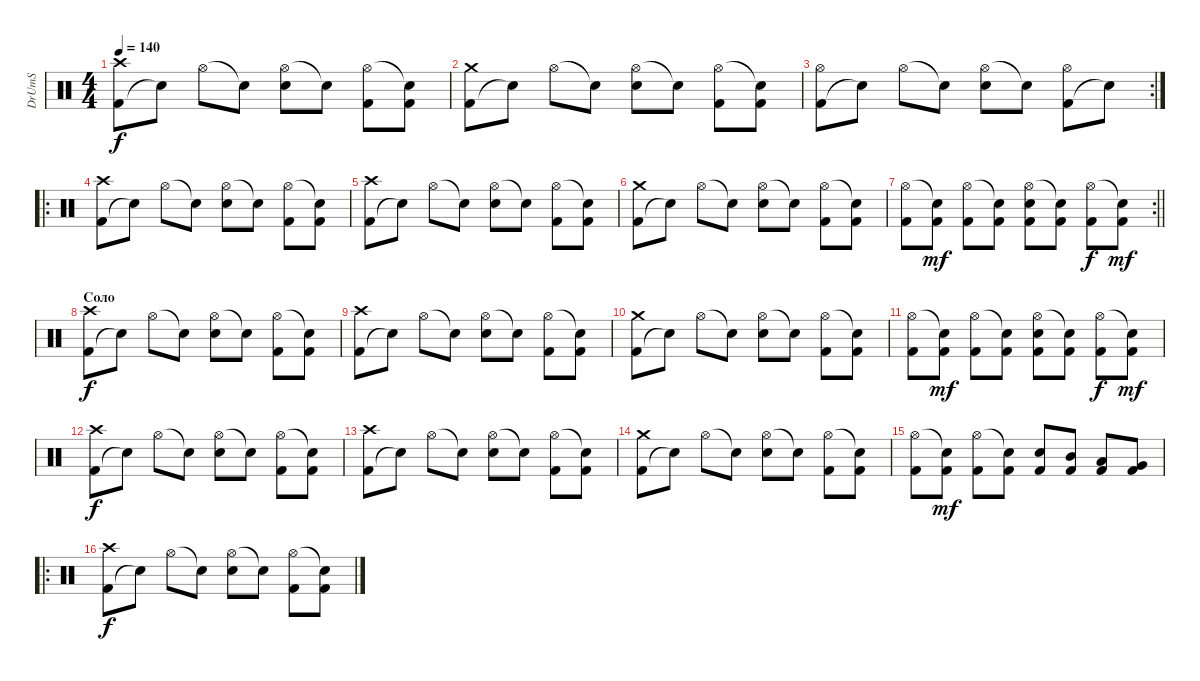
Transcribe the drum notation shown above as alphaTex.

\track ("DrUmS" "DrUmS") {instrument percussion}
\staff {score}
\articulation defaults
\ts (4 4)
\tempo 140
\clef neutral
\ks c
("Kick (hit) 2" "Crash high (hit)").8{dy f} "Snare (hit)"{t}.8 "Hi-Hat (open)".8 "Snare (hit)"{t}.8 ("Hi-Hat (open)" "Snare (hit) 2").8 "Snare (hit)"{t}.8 ("Kick (hit) 2" "Hi-Hat (open)").8 ("Kick (hit) 2" "Snare (hit)"{t}).8 |
("Kick (hit) 2" "Crash medium (hit)").8 "Snare (hit)"{t}.8 "Hi-Hat (open)".8 "Snare (hit)"{t}.8 ("Hi-Hat (open)" "Snare (hit) 2").8 "Snare (hit)"{t}.8 ("Kick (hit) 2" "Hi-Hat (open)").8 ("Kick (hit) 2" "Snare (hit)"{t}).8 |
\rc 2
("Kick (hit) 2" "Hi-Hat (open)").8 "Snare (hit)"{t}.8 "Hi-Hat (open)".8 "Snare (hit)"{t}.8 ("Hi-Hat (open)" "Snare (hit) 2").8 "Snare (hit)"{t}.8 ("Kick (hit) 2" "Hi-Hat (open)").8 "Snare (hit)"{t}.8 |
\ro
("Kick (hit) 2" "Crash high (hit)").8 "Snare (hit)"{t}.8 "Hi-Hat (open)".8 "Snare (hit)"{t}.8 ("Hi-Hat (open)" "Snare (hit) 2").8 "Snare (hit)"{t}.8 ("Kick (hit) 2" "Hi-Hat (open)").8 ("Kick (hit) 2" "Snare (hit)"{t}).8 |
("Kick (hit) 2" "Crash high (hit)").8 "Snare (hit)"{t}.8 "Hi-Hat (open)".8 "Snare (hit)"{t}.8 ("Hi-Hat (open)" "Snare (hit) 2").8 "Snare (hit)"{t}.8 ("Kick (hit) 2" "Hi-Hat (open)").8 ("Kick (hit) 2" "Snare (hit)"{t}).8 |
("Kick (hit) 2" "Crash medium (hit)").8 "Snare (hit)"{t}.8 "Hi-Hat (open)".8 "Snare (hit)"{t}.8 ("Hi-Hat (open)" "Snare (hit) 2").8 "Snare (hit)"{t}.8 ("Kick (hit) 2" "Hi-Hat (open)").8 ("Kick (hit) 2" "Snare (hit)"{t}).8 |
\rc 2
\barLineRight lightlight
("Kick (hit) 2" "Hi-Hat (open)").8 ("Kick (hit) 2" "Snare (hit)"{t}).8{dy mf} ("Kick (hit) 2" "Hi-Hat (open)").8 ("Kick (hit) 2" "Snare (hit)"{t}).8 ("Kick (hit) 2" "Hi-Hat (open)" "Snare (hit) 2").8 ("Kick (hit) 2" "Snare (hit)"{t}).8 ("Kick (hit) 2" "Hi-Hat (open)").8{dy f} ("Kick (hit) 2" "Snare (hit)"{t}).8{dy mf} |
\section ("" "Соло")
("Kick (hit) 2" "Crash high (hit)").8{dy f} "Snare (hit)"{t}.8 "Hi-Hat (open)".8 "Snare (hit)"{t}.8 ("Hi-Hat (open)" "Snare (hit) 2").8 "Snare (hit)"{t}.8 ("Kick (hit) 2" "Hi-Hat (open)").8 ("Kick (hit) 2" "Snare (hit)"{t}).8 |
("Kick (hit) 2" "Crash high (hit)").8 "Snare (hit)"{t}.8 "Hi-Hat (open)".8 "Snare (hit)"{t}.8 ("Hi-Hat (open)" "Snare (hit) 2").8 "Snare (hit)"{t}.8 ("Kick (hit) 2" "Hi-Hat (open)").8 ("Kick (hit) 2" "Snare (hit)"{t}).8 |
("Kick (hit) 2" "Crash medium (hit)").8 "Snare (hit)"{t}.8 "Hi-Hat (open)".8 "Snare (hit)"{t}.8 ("Hi-Hat (open)" "Snare (hit) 2").8 "Snare (hit)"{t}.8 ("Kick (hit) 2" "Hi-Hat (open)").8 ("Kick (hit) 2" "Snare (hit)"{t}).8 |
("Kick (hit) 2" "Hi-Hat (open)").8 ("Kick (hit) 2" "Snare (hit)"{t}).8{dy mf} ("Kick (hit) 2" "Hi-Hat (open)").8 ("Kick (hit) 2" "Snare (hit)"{t}).8 ("Kick (hit) 2" "Hi-Hat (open)" "Snare (hit) 2").8 ("Kick (hit) 2" "Snare (hit)"{t}).8 ("Kick (hit) 2" "Hi-Hat (open)").8{dy f} ("Kick (hit) 2" "Snare (hit)"{t}).8{dy mf} |
("Kick (hit) 2" "Crash high (hit)").8{dy f} "Snare (hit)"{t}.8 "Hi-Hat (open)".8 "Snare (hit)"{t}.8 ("Hi-Hat (open)" "Snare (hit) 2").8 "Snare (hit)"{t}.8 ("Kick (hit) 2" "Hi-Hat (open)").8 ("Kick (hit) 2" "Snare (hit)"{t}).8 |
("Kick (hit) 2" "Crash high (hit)").8 "Snare (hit)"{t}.8 "Hi-Hat (open)".8 "Snare (hit)"{t}.8 ("Hi-Hat (open)" "Snare (hit) 2").8 "Snare (hit)"{t}.8 ("Kick (hit) 2" "Hi-Hat (open)").8 ("Kick (hit) 2" "Snare (hit)"{t}).8 |
("Kick (hit) 2" "Crash medium (hit)").8 "Snare (hit)"{t}.8 "Hi-Hat (open)".8 "Snare (hit)"{t}.8 ("Hi-Hat (open)" "Snare (hit) 2").8 "Snare (hit)"{t}.8 ("Kick (hit) 2" "Hi-Hat (open)").8 ("Kick (hit) 2" "Snare (hit)"{t}).8 |
("Kick (hit) 2" "Hi-Hat (open)").8 ("Kick (hit) 2" "Snare (hit)"{t}).8{dy mf} ("Kick (hit) 2" "Hi-Hat (open)").8 ("Kick (hit) 2" "Snare (hit)"{t}).8 ("Kick (hit) 2" "Snare (hit) 2").8 ("Kick (hit) 2" "Mid Tom (hit)").8 ("Kick (hit) 2" "Low Tom (hit)").8 ("Kick (hit) 2" "Very Low Tom (hit)").8 |
\ro
("Kick (hit) 2" "Crash high (hit)").8{dy f} "Snare (hit)"{t}.8 "Hi-Hat (open)".8 "Snare (hit)"{t}.8 ("Hi-Hat (open)" "Snare (hit) 2").8 "Snare (hit)"{t}.8 ("Kick (hit) 2" "Hi-Hat (open)").8 ("Kick (hit) 2" "Snare (hit)"{t}).8
